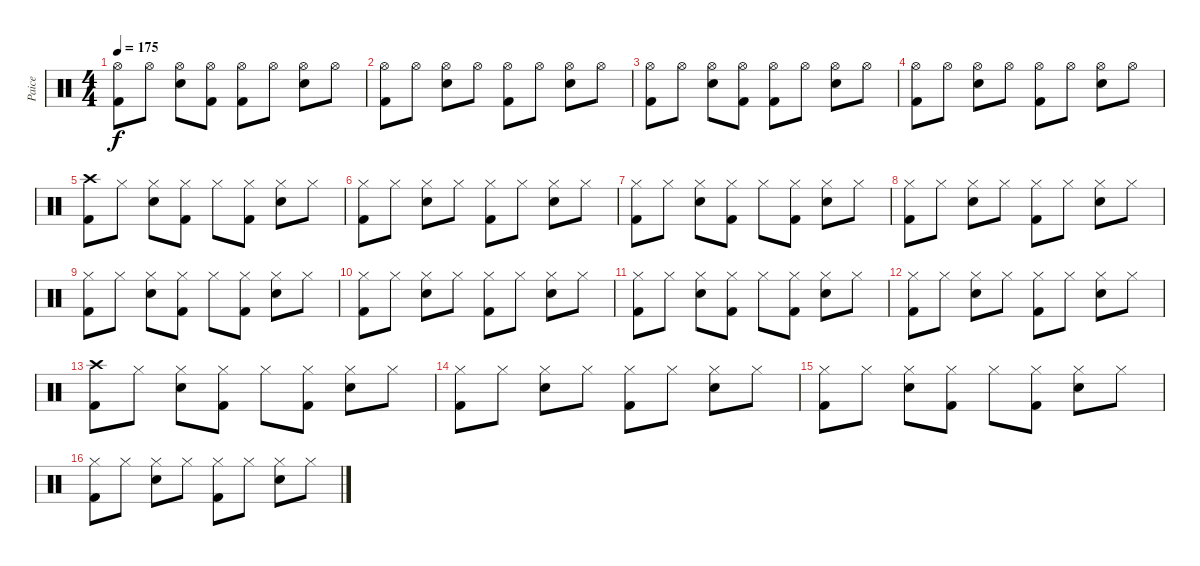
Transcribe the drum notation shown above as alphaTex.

\track ("Paice" "Paice") {instrument percussion}
\staff {score}
\articulation defaults
\ts (4 4)
\tempo 175
\clef neutral
\ks c
("Hi-Hat (open)" "Kick (hit) 2").8{dy f} "Hi-Hat (open)".8 ("Hi-Hat (open)" "Electric Snare (hit)").8 ("Hi-Hat (open)" "Kick (hit) 2").8 ("Hi-Hat (open)" "Kick (hit) 2").8 "Hi-Hat (open)".8 ("Hi-Hat (open)" "Electric Snare (hit)").8 "Hi-Hat (open)".8 |
("Hi-Hat (open)" "Kick (hit) 2").8 "Hi-Hat (open)".8 ("Hi-Hat (open)" "Electric Snare (hit)").8 "Hi-Hat (open)".8 ("Hi-Hat (open)" "Kick (hit) 2").8 "Hi-Hat (open)".8 ("Hi-Hat (open)" "Electric Snare (hit)").8 "Hi-Hat (open)".8 |
("Hi-Hat (open)" "Kick (hit) 2").8 "Hi-Hat (open)".8 ("Hi-Hat (open)" "Electric Snare (hit)").8 ("Hi-Hat (open)" "Kick (hit) 2").8 ("Hi-Hat (open)" "Kick (hit) 2").8 "Hi-Hat (open)".8 ("Hi-Hat (open)" "Electric Snare (hit)").8 "Hi-Hat (open)".8 |
("Hi-Hat (open)" "Kick (hit) 2").8 "Hi-Hat (open)".8 ("Hi-Hat (open)" "Electric Snare (hit)").8 "Hi-Hat (open)".8 ("Hi-Hat (open)" "Kick (hit) 2").8 "Hi-Hat (open)".8 ("Hi-Hat (open)" "Electric Snare (hit)").8 "Hi-Hat (open)".8 |
("Crash high (hit)" "Kick (hit) 2").8 "Hi-Hat (closed)".8 ("Hi-Hat (closed)" "Electric Snare (hit)").8 ("Hi-Hat (closed)" "Kick (hit) 2").8 "Hi-Hat (closed)".8 ("Hi-Hat (closed)" "Kick (hit) 2").8 ("Hi-Hat (closed)" "Electric Snare (hit)").8 "Hi-Hat (closed)".8 |
("Hi-Hat (closed)" "Kick (hit) 2").8 "Hi-Hat (closed)".8 ("Hi-Hat (closed)" "Electric Snare (hit)").8 "Hi-Hat (closed)".8 ("Hi-Hat (closed)" "Kick (hit) 2").8 "Hi-Hat (closed)".8 ("Hi-Hat (closed)" "Electric Snare (hit)").8 "Hi-Hat (closed)".8 |
("Hi-Hat (closed)" "Kick (hit) 2").8 "Hi-Hat (closed)".8 ("Hi-Hat (closed)" "Electric Snare (hit)").8 ("Hi-Hat (closed)" "Kick (hit) 2").8 "Hi-Hat (closed)".8 ("Hi-Hat (closed)" "Kick (hit) 2").8 ("Hi-Hat (closed)" "Electric Snare (hit)").8 "Hi-Hat (closed)".8 |
("Hi-Hat (closed)" "Kick (hit) 2").8 "Hi-Hat (closed)".8 ("Hi-Hat (closed)" "Electric Snare (hit)").8 "Hi-Hat (closed)".8 ("Hi-Hat (closed)" "Kick (hit) 2").8 "Hi-Hat (closed)".8 ("Hi-Hat (closed)" "Electric Snare (hit)").8 "Hi-Hat (closed)".8 |
("Hi-Hat (closed)" "Kick (hit) 2").8 "Hi-Hat (closed)".8 ("Hi-Hat (closed)" "Electric Snare (hit)").8 ("Hi-Hat (closed)" "Kick (hit) 2").8 "Hi-Hat (closed)".8 ("Hi-Hat (closed)" "Kick (hit) 2").8 ("Hi-Hat (closed)" "Electric Snare (hit)").8 "Hi-Hat (closed)".8 |
("Hi-Hat (closed)" "Kick (hit) 2").8 "Hi-Hat (closed)".8 ("Hi-Hat (closed)" "Electric Snare (hit)").8 "Hi-Hat (closed)".8 ("Hi-Hat (closed)" "Kick (hit) 2").8 "Hi-Hat (closed)".8 ("Hi-Hat (closed)" "Electric Snare (hit)").8 "Hi-Hat (closed)".8 |
("Hi-Hat (closed)" "Kick (hit) 2").8 "Hi-Hat (closed)".8 ("Hi-Hat (closed)" "Electric Snare (hit)").8 ("Hi-Hat (closed)" "Kick (hit) 2").8 "Hi-Hat (closed)".8 ("Hi-Hat (closed)" "Kick (hit) 2").8 ("Hi-Hat (closed)" "Electric Snare (hit)").8 "Hi-Hat (closed)".8 |
("Hi-Hat (closed)" "Kick (hit) 2").8 "Hi-Hat (closed)".8 ("Hi-Hat (closed)" "Electric Snare (hit)").8 "Hi-Hat (closed)".8 ("Hi-Hat (closed)" "Kick (hit) 2").8 "Hi-Hat (closed)".8 ("Hi-Hat (closed)" "Electric Snare (hit)").8 "Hi-Hat (closed)".8 |
("Crash high (hit)" "Kick (hit) 2").8 "Hi-Hat (closed)".8 ("Hi-Hat (closed)" "Electric Snare (hit)").8 ("Hi-Hat (closed)" "Kick (hit) 2").8 "Hi-Hat (closed)".8 ("Hi-Hat (closed)" "Kick (hit) 2").8 ("Hi-Hat (closed)" "Electric Snare (hit)").8 "Hi-Hat (closed)".8 |
("Hi-Hat (closed)" "Kick (hit) 2").8 "Hi-Hat (closed)".8 ("Hi-Hat (closed)" "Electric Snare (hit)").8 "Hi-Hat (closed)".8 ("Hi-Hat (closed)" "Kick (hit) 2").8 "Hi-Hat (closed)".8 ("Hi-Hat (closed)" "Electric Snare (hit)").8 "Hi-Hat (closed)".8 |
("Hi-Hat (closed)" "Kick (hit) 2").8 "Hi-Hat (closed)".8 ("Hi-Hat (closed)" "Electric Snare (hit)").8 ("Hi-Hat (closed)" "Kick (hit) 2").8 "Hi-Hat (closed)".8 ("Hi-Hat (closed)" "Kick (hit) 2").8 ("Hi-Hat (closed)" "Electric Snare (hit)").8 "Hi-Hat (closed)".8 |
("Hi-Hat (closed)" "Kick (hit) 2").8 "Hi-Hat (closed)".8 ("Hi-Hat (closed)" "Electric Snare (hit)").8 "Hi-Hat (closed)".8 ("Hi-Hat (closed)" "Kick (hit) 2").8 "Hi-Hat (closed)".8 ("Hi-Hat (closed)" "Electric Snare (hit)").8 "Hi-Hat (closed)".8
